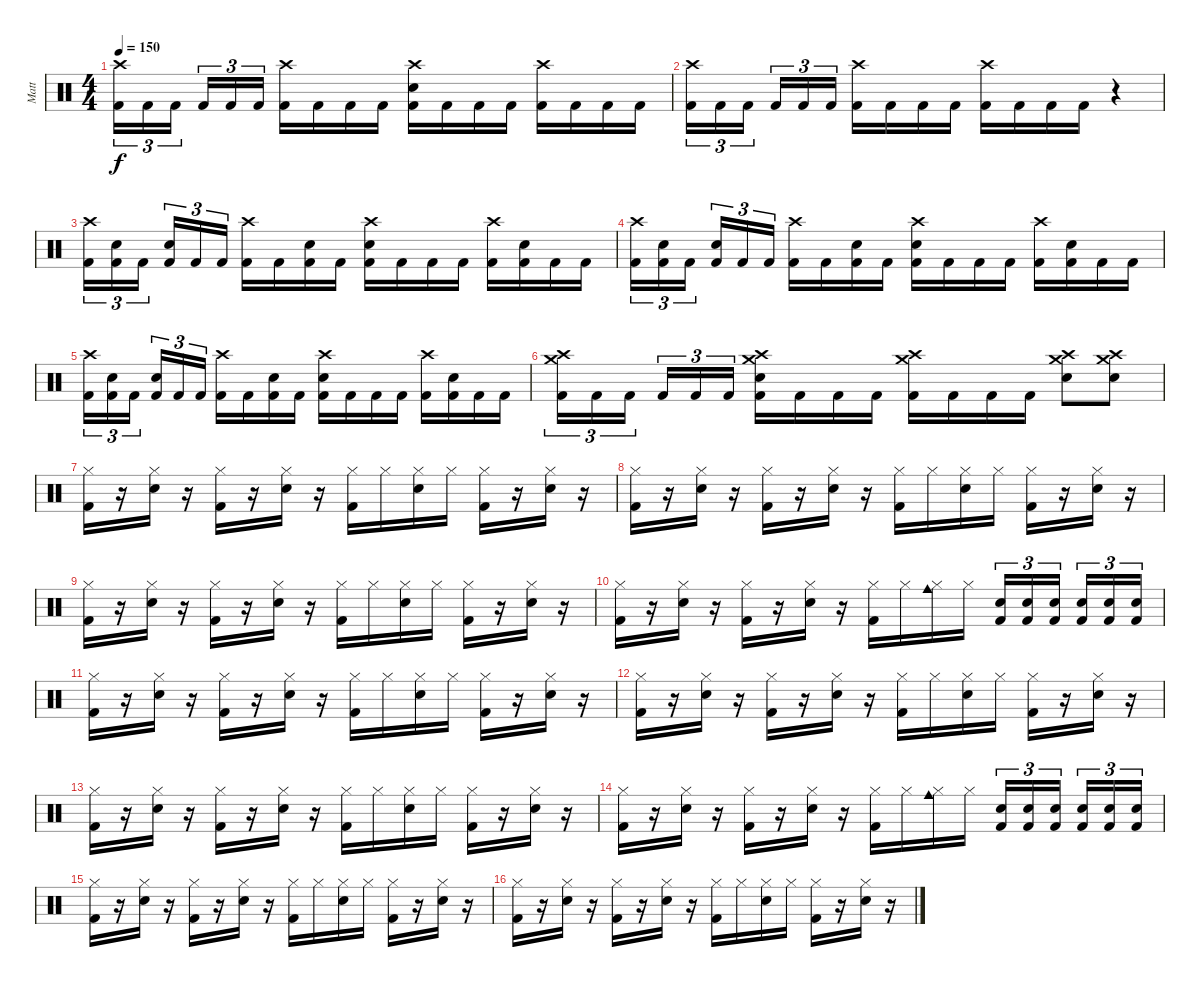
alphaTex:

\track ("Matt" "Matt") {instrument percussion}
\staff {score}
\articulation defaults
\ts (4 4)
\tempo 150
\clef neutral
\ks c
("Crash high (hit)" "Kick (hit) 2").16{tu (3 2) dy f} "Kick (hit) 2".16{tu (3 2)} "Kick (hit) 2".16{tu (3 2)} "Kick (hit) 2".16{tu (3 2)} "Kick (hit) 2".16{tu (3 2)} "Kick (hit) 2".16{tu (3 2)} ("Crash high (hit)" "Kick (hit) 2").16 "Kick (hit) 2".16 "Kick (hit) 2".16 "Kick (hit) 2".16 ("Crash high (hit)" "Snare (hit) 2" "Kick (hit) 2").16 "Kick (hit) 2".16 "Kick (hit) 2".16 "Kick (hit) 2".16 ("Crash high (hit)" "Kick (hit) 2").16 "Kick (hit) 2".16 "Kick (hit) 2".16 "Kick (hit) 2".16 |
("Crash high (hit)" "Kick (hit) 2").16{tu (3 2)} "Kick (hit) 2".16{tu (3 2)} "Kick (hit) 2".16{tu (3 2)} "Kick (hit) 2".16{tu (3 2)} "Kick (hit) 2".16{tu (3 2)} "Kick (hit) 2".16{tu (3 2)} ("Crash high (hit)" "Kick (hit) 2").16 "Kick (hit) 2".16 "Kick (hit) 2".16 "Kick (hit) 2".16 ("Crash high (hit)" "Kick (hit) 2").16 "Kick (hit) 2".16 "Kick (hit) 2".16 "Kick (hit) 2".16 r.4 |
("Crash high (hit)" "Kick (hit) 2").16{tu (3 2)} ("Snare (hit) 2" "Kick (hit) 2").16{tu (3 2)} "Kick (hit) 2".16{tu (3 2)} ("Snare (hit) 2" "Kick (hit) 2").16{tu (3 2)} "Kick (hit) 2".16{tu (3 2)} "Kick (hit) 2".16{tu (3 2)} ("Crash high (hit)" "Kick (hit) 2").16 "Kick (hit) 2".16 ("Snare (hit) 2" "Kick (hit) 2").16 "Kick (hit) 2".16 ("Crash high (hit)" "Snare (hit) 2" "Kick (hit) 2").16 "Kick (hit) 2".16 "Kick (hit) 2".16 "Kick (hit) 2".16 ("Crash high (hit)" "Kick (hit) 2").16 ("Snare (hit) 2" "Kick (hit) 2").16 "Kick (hit) 2".16 "Kick (hit) 2".16 |
("Crash high (hit)" "Kick (hit) 2").16{tu (3 2)} ("Snare (hit) 2" "Kick (hit) 2").16{tu (3 2)} "Kick (hit) 2".16{tu (3 2)} ("Snare (hit) 2" "Kick (hit) 2").16{tu (3 2)} "Kick (hit) 2".16{tu (3 2)} "Kick (hit) 2".16{tu (3 2)} ("Crash high (hit)" "Kick (hit) 2").16 "Kick (hit) 2".16 ("Snare (hit) 2" "Kick (hit) 2").16 "Kick (hit) 2".16 ("Crash high (hit)" "Snare (hit) 2" "Kick (hit) 2").16 "Kick (hit) 2".16 "Kick (hit) 2".16 "Kick (hit) 2".16 ("Crash high (hit)" "Kick (hit) 2").16 ("Snare (hit) 2" "Kick (hit) 2").16 "Kick (hit) 2".16 "Kick (hit) 2".16 |
("Crash high (hit)" "Kick (hit) 2").16{tu (3 2)} ("Snare (hit) 2" "Kick (hit) 2").16{tu (3 2)} "Kick (hit) 2".16{tu (3 2)} ("Snare (hit) 2" "Kick (hit) 2").16{tu (3 2)} "Kick (hit) 2".16{tu (3 2)} "Kick (hit) 2".16{tu (3 2)} ("Crash high (hit)" "Kick (hit) 2").16 "Kick (hit) 2".16 ("Snare (hit) 2" "Kick (hit) 2").16 "Kick (hit) 2".16 ("Crash high (hit)" "Snare (hit) 2" "Kick (hit) 2").16 "Kick (hit) 2".16 "Kick (hit) 2".16 "Kick (hit) 2".16 ("Crash high (hit)" "Kick (hit) 2").16 ("Snare (hit) 2" "Kick (hit) 2").16 "Kick (hit) 2".16 "Kick (hit) 2".16 |
("Crash high (hit)" "Crash medium (hit)" "Kick (hit) 2").16{tu (3 2)} "Kick (hit) 2".16{tu (3 2)} "Kick (hit) 2".16{tu (3 2)} "Kick (hit) 2".16{tu (3 2)} "Kick (hit) 2".16{tu (3 2)} "Kick (hit) 2".16{tu (3 2)} ("Crash high (hit)" "Crash medium (hit)" "Snare (hit) 2" "Kick (hit) 2").16 "Kick (hit) 2".16 "Kick (hit) 2".16 "Kick (hit) 2".16 ("Crash high (hit)" "Crash medium (hit)" "Kick (hit) 2").16 "Kick (hit) 2".16 "Kick (hit) 2".16 "Kick (hit) 2".16 ("Crash high (hit)" "Crash medium (hit)" "Snare (hit) 2").8 ("Crash high (hit)" "Crash medium (hit)" "Snare (hit) 2").8 |
("Hi-Hat (closed)" "Kick (hit) 2").16 r.16 ("Hi-Hat (closed)" "Snare (hit) 2").16 r.16 ("Hi-Hat (closed)" "Kick (hit) 2").16 r.16 ("Hi-Hat (closed)" "Snare (hit) 2").16 r.16 ("Hi-Hat (closed)" "Kick (hit) 2").16 "Hi-Hat (closed)".16 ("Hi-Hat (closed)" "Snare (hit) 2").16 "Hi-Hat (closed)".16 ("Hi-Hat (closed)" "Kick (hit) 2").16 r.16 ("Hi-Hat (closed)" "Snare (hit) 2").16 r.16 |
("Hi-Hat (closed)" "Kick (hit) 2").16 r.16 ("Hi-Hat (closed)" "Snare (hit) 2").16 r.16 ("Hi-Hat (closed)" "Kick (hit) 2").16 r.16 ("Hi-Hat (closed)" "Snare (hit) 2").16 r.16 ("Hi-Hat (closed)" "Kick (hit) 2").16 "Hi-Hat (closed)".16 ("Hi-Hat (closed)" "Snare (hit) 2").16 "Hi-Hat (closed)".16 ("Hi-Hat (closed)" "Kick (hit) 2").16 r.16 ("Hi-Hat (closed)" "Snare (hit) 2").16 r.16 |
("Hi-Hat (closed)" "Kick (hit) 2").16 r.16 ("Hi-Hat (closed)" "Snare (hit) 2").16 r.16 ("Hi-Hat (closed)" "Kick (hit) 2").16 r.16 ("Hi-Hat (closed)" "Snare (hit) 2").16 r.16 ("Hi-Hat (closed)" "Kick (hit) 2").16 "Hi-Hat (closed)".16 ("Hi-Hat (closed)" "Snare (hit) 2").16 "Hi-Hat (closed)".16 ("Hi-Hat (closed)" "Kick (hit) 2").16 r.16 ("Hi-Hat (closed)" "Snare (hit) 2").16 r.16 |
("Hi-Hat (closed)" "Kick (hit) 2").16 r.16 ("Hi-Hat (closed)" "Snare (hit) 2").16 r.16 ("Hi-Hat (closed)" "Kick (hit) 2").16 r.16 ("Hi-Hat (closed)" "Snare (hit) 2").16 r.16 ("Hi-Hat (closed)" "Kick (hit) 2").16 "Hi-Hat (closed)".16 ("Hi-Hat (closed)" "Cowbell medium (hit)").16 "Hi-Hat (closed)".16 ("Snare (hit) 2" "Kick (hit) 2").16{tu (3 2)} ("Snare (hit) 2" "Kick (hit) 2").16{tu (3 2)} ("Snare (hit) 2" "Kick (hit) 2").16{tu (3 2)} ("Snare (hit) 2" "Kick (hit) 2").16{tu (3 2)} ("Snare (hit) 2" "Kick (hit) 2").16{tu (3 2)} ("Snare (hit) 2" "Kick (hit) 2").16{tu (3 2)} |
("Hi-Hat (closed)" "Kick (hit) 2").16 r.16 ("Hi-Hat (closed)" "Snare (hit) 2").16 r.16 ("Hi-Hat (closed)" "Kick (hit) 2").16 r.16 ("Hi-Hat (closed)" "Snare (hit) 2").16 r.16 ("Hi-Hat (closed)" "Kick (hit) 2").16 "Hi-Hat (closed)".16 ("Hi-Hat (closed)" "Snare (hit) 2").16 "Hi-Hat (closed)".16 ("Hi-Hat (closed)" "Kick (hit) 2").16 r.16 ("Hi-Hat (closed)" "Snare (hit) 2").16 r.16 |
("Hi-Hat (closed)" "Kick (hit) 2").16 r.16 ("Hi-Hat (closed)" "Snare (hit) 2").16 r.16 ("Hi-Hat (closed)" "Kick (hit) 2").16 r.16 ("Hi-Hat (closed)" "Snare (hit) 2").16 r.16 ("Hi-Hat (closed)" "Kick (hit) 2").16 "Hi-Hat (closed)".16 ("Hi-Hat (closed)" "Snare (hit) 2").16 "Hi-Hat (closed)".16 ("Hi-Hat (closed)" "Kick (hit) 2").16 r.16 ("Hi-Hat (closed)" "Snare (hit) 2").16 r.16 |
("Hi-Hat (closed)" "Kick (hit) 2").16 r.16 ("Hi-Hat (closed)" "Snare (hit) 2").16 r.16 ("Hi-Hat (closed)" "Kick (hit) 2").16 r.16 ("Hi-Hat (closed)" "Snare (hit) 2").16 r.16 ("Hi-Hat (closed)" "Kick (hit) 2").16 "Hi-Hat (closed)".16 ("Hi-Hat (closed)" "Snare (hit) 2").16 "Hi-Hat (closed)".16 ("Hi-Hat (closed)" "Kick (hit) 2").16 r.16 ("Hi-Hat (closed)" "Snare (hit) 2").16 r.16 |
("Hi-Hat (closed)" "Kick (hit) 2").16 r.16 ("Hi-Hat (closed)" "Snare (hit) 2").16 r.16 ("Hi-Hat (closed)" "Kick (hit) 2").16 r.16 ("Hi-Hat (closed)" "Snare (hit) 2").16 r.16 ("Hi-Hat (closed)" "Kick (hit) 2").16 "Hi-Hat (closed)".16 ("Hi-Hat (closed)" "Cowbell medium (hit)").16 "Hi-Hat (closed)".16 ("Snare (hit) 2" "Kick (hit) 2").16{tu (3 2)} ("Snare (hit) 2" "Kick (hit) 2").16{tu (3 2)} ("Snare (hit) 2" "Kick (hit) 2").16{tu (3 2)} ("Snare (hit) 2" "Kick (hit) 2").16{tu (3 2)} ("Snare (hit) 2" "Kick (hit) 2").16{tu (3 2)} ("Snare (hit) 2" "Kick (hit) 2").16{tu (3 2)} |
("Hi-Hat (closed)" "Kick (hit) 2").16 r.16 ("Hi-Hat (closed)" "Snare (hit) 2").16 r.16 ("Hi-Hat (closed)" "Kick (hit) 2").16 r.16 ("Hi-Hat (closed)" "Snare (hit) 2").16 r.16 ("Hi-Hat (closed)" "Kick (hit) 2").16 "Hi-Hat (closed)".16 ("Hi-Hat (closed)" "Snare (hit) 2").16 "Hi-Hat (closed)".16 ("Hi-Hat (closed)" "Kick (hit) 2").16 r.16 ("Hi-Hat (closed)" "Snare (hit) 2").16 r.16 |
("Hi-Hat (closed)" "Kick (hit) 2").16 r.16 ("Hi-Hat (closed)" "Snare (hit) 2").16 r.16 ("Hi-Hat (closed)" "Kick (hit) 2").16 r.16 ("Hi-Hat (closed)" "Snare (hit) 2").16 r.16 ("Hi-Hat (closed)" "Kick (hit) 2").16 "Hi-Hat (closed)".16 ("Hi-Hat (closed)" "Snare (hit) 2").16 "Hi-Hat (closed)".16 ("Hi-Hat (closed)" "Kick (hit) 2").16 r.16 ("Hi-Hat (closed)" "Snare (hit) 2").16 r.16
